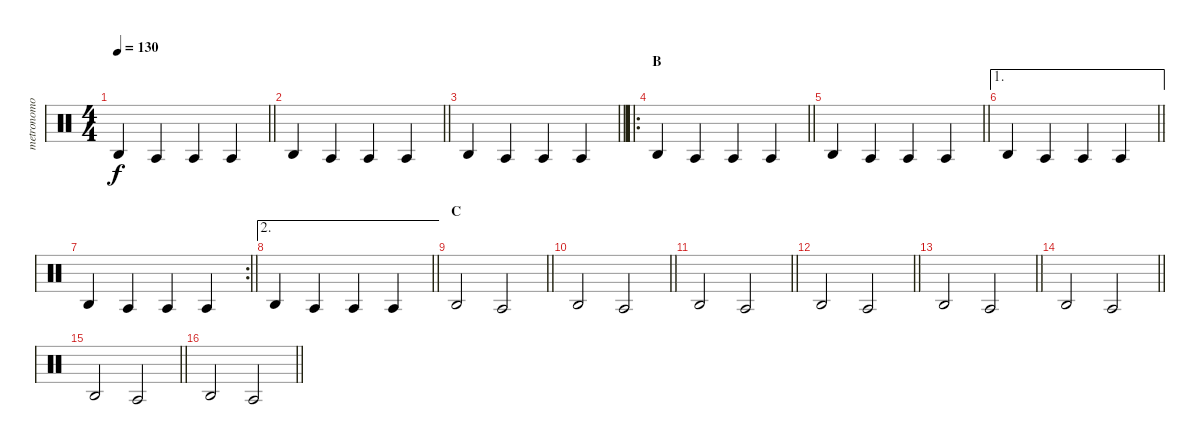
\track ("metronomo" "metronomo") {mute instrument percussion}
\staff {score}
\articulation defaults
\ts (4 4)
\tempo 130
\clef neutral
\barLineRight lightlight
\ks c "Agogo high (hit)".4{dy f} "Agogo tow (hit)".4 "Agogo tow (hit)".4 "Agogo tow (hit)".4
|
\barLineRight lightlight "Agogo high (hit)".4 "Agogo tow (hit)".4 "Agogo tow (hit)".4 "Agogo tow (hit)".4
|
\barLineRight lightlight "Agogo high (hit)".4 "Agogo tow (hit)".4 "Agogo tow (hit)".4 "Agogo tow (hit)".4
|
\ro
\section ("" "B")
\barLineRight lightlight "Agogo high (hit)".4 "Agogo tow (hit)".4 "Agogo tow (hit)".4 "Agogo tow (hit)".4
|
\barLineRight lightlight "Agogo high (hit)".4 "Agogo tow (hit)".4 "Agogo tow (hit)".4 "Agogo tow (hit)".4
|
\ae 1
\barLineRight lightlight "Agogo high (hit)".4 "Agogo tow (hit)".4 "Agogo tow (hit)".4 "Agogo tow (hit)".4
|
\rc 2
\barLineRight lightlight "Agogo high (hit)".4 "Agogo tow (hit)".4 "Agogo tow (hit)".4 "Agogo tow (hit)".4
|
\ae 2
\barLineRight lightlight "Agogo high (hit)".4 "Agogo tow (hit)".4 "Agogo tow (hit)".4 "Agogo tow (hit)".4
|
\section ("" "C")
\barLineRight lightlight "Agogo high (hit)".2 "Agogo tow (hit)".2
|
\barLineRight lightlight "Agogo high (hit)".2 "Agogo tow (hit)".2
|
\barLineRight lightlight "Agogo high (hit)".2 "Agogo tow (hit)".2
|
\barLineRight lightlight "Agogo high (hit)".2 "Agogo tow (hit)".2
|
\barLineRight lightlight "Agogo high (hit)".2 "Agogo tow (hit)".2
|
\barLineRight lightlight "Agogo high (hit)".2 "Agogo tow (hit)".2
|
\barLineRight lightlight "Agogo high (hit)".2 "Agogo tow (hit)".2
|
\barLineRight lightlight "Agogo high (hit)".2 "Agogo tow (hit)".2
